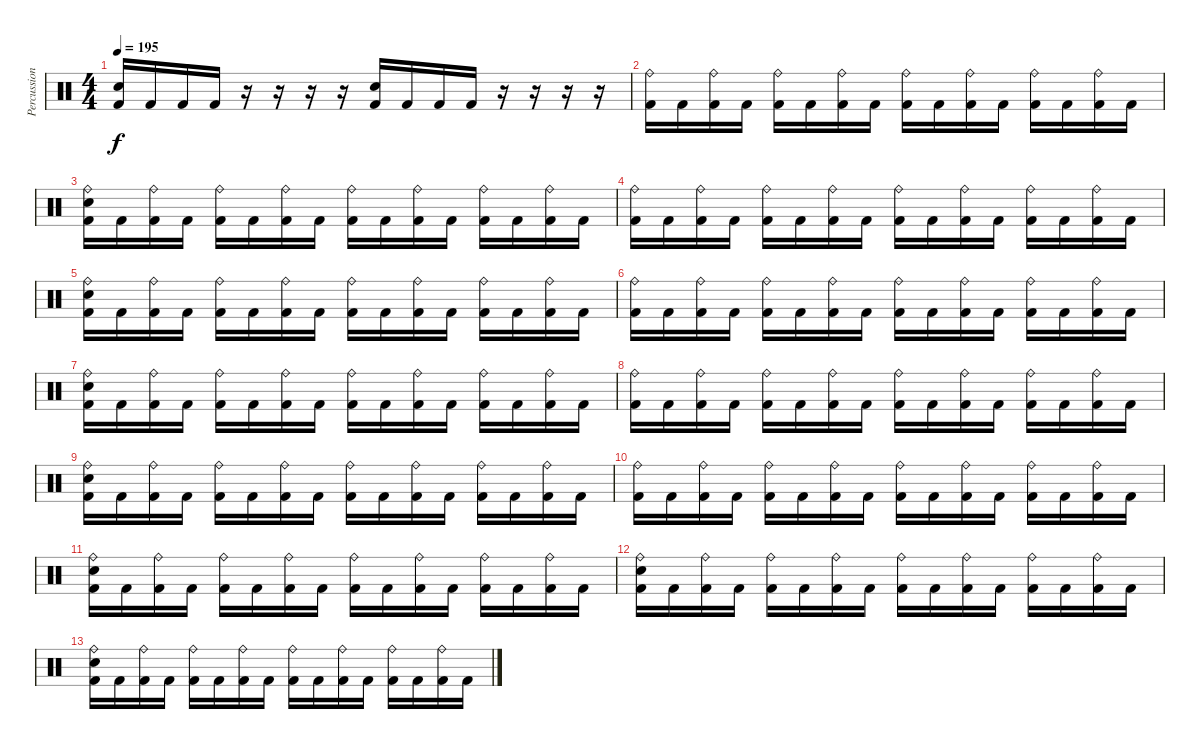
\track ("Percussion" "Percussion") {instrument percussion}
\staff {score}
\articulation defaults
\ts (4 4)
\tempo 195
\clef neutral
\ks c
("Snare (hit) 2" "Kick (hit) 2").16{dy f} "Kick (hit) 2".16 "Kick (hit) 2".16 "Kick (hit) 2".16 r.16 r.16 r.16 r.16 ("Snare (hit) 2" "Kick (hit) 2").16 "Kick (hit) 2".16 "Kick (hit) 2".16 "Kick (hit) 2".16 r.16 r.16 r.16 r.16 |
("Ride (bell)" "Kick (hit) 2").16 "Kick (hit) 2".16 ("Ride (bell)" "Kick (hit) 2").16 "Kick (hit) 2".16 ("Ride (bell)" "Kick (hit) 2").16 "Kick (hit) 2".16 ("Ride (bell)" "Kick (hit) 2").16 "Kick (hit) 2".16 ("Ride (bell)" "Kick (hit) 2").16 "Kick (hit) 2".16 ("Ride (bell)" "Kick (hit) 2").16 "Kick (hit) 2".16 ("Ride (bell)" "Kick (hit) 2").16 "Kick (hit) 2".16 ("Ride (bell)" "Kick (hit) 2").16 "Kick (hit) 2".16 |
("Ride (bell)" "Snare (hit) 2" "Kick (hit) 2").16 "Kick (hit) 2".16 ("Ride (bell)" "Kick (hit) 2").16 "Kick (hit) 2".16 ("Ride (bell)" "Kick (hit) 2").16 "Kick (hit) 2".16 ("Ride (bell)" "Kick (hit) 2").16 "Kick (hit) 2".16 ("Ride (bell)" "Kick (hit) 2").16 "Kick (hit) 2".16 ("Ride (bell)" "Kick (hit) 2").16 "Kick (hit) 2".16 ("Ride (bell)" "Kick (hit) 2").16 "Kick (hit) 2".16 ("Ride (bell)" "Kick (hit) 2").16 "Kick (hit) 2".16 |
("Ride (bell)" "Kick (hit) 2").16 "Kick (hit) 2".16 ("Ride (bell)" "Kick (hit) 2").16 "Kick (hit) 2".16 ("Ride (bell)" "Kick (hit) 2").16 "Kick (hit) 2".16 ("Ride (bell)" "Kick (hit) 2").16 "Kick (hit) 2".16 ("Ride (bell)" "Kick (hit) 2").16 "Kick (hit) 2".16 ("Ride (bell)" "Kick (hit) 2").16 "Kick (hit) 2".16 ("Ride (bell)" "Kick (hit) 2").16 "Kick (hit) 2".16 ("Ride (bell)" "Kick (hit) 2").16 "Kick (hit) 2".16 |
("Ride (bell)" "Snare (hit) 2" "Kick (hit) 2").16{volume 7} "Kick (hit) 2".16 ("Ride (bell)" "Kick (hit) 2").16 "Kick (hit) 2".16 ("Ride (bell)" "Kick (hit) 2").16 "Kick (hit) 2".16 ("Ride (bell)" "Kick (hit) 2").16 "Kick (hit) 2".16 ("Ride (bell)" "Kick (hit) 2").16 "Kick (hit) 2".16 ("Ride (bell)" "Kick (hit) 2").16 "Kick (hit) 2".16 ("Ride (bell)" "Kick (hit) 2").16 "Kick (hit) 2".16 ("Ride (bell)" "Kick (hit) 2").16 "Kick (hit) 2".16 |
("Ride (bell)" "Kick (hit) 2").16{volume 6} "Kick (hit) 2".16 ("Ride (bell)" "Kick (hit) 2").16 "Kick (hit) 2".16 ("Ride (bell)" "Kick (hit) 2").16 "Kick (hit) 2".16 ("Ride (bell)" "Kick (hit) 2").16 "Kick (hit) 2".16 ("Ride (bell)" "Kick (hit) 2").16 "Kick (hit) 2".16 ("Ride (bell)" "Kick (hit) 2").16 "Kick (hit) 2".16 ("Ride (bell)" "Kick (hit) 2").16 "Kick (hit) 2".16 ("Ride (bell)" "Kick (hit) 2").16 "Kick (hit) 2".16 |
("Ride (bell)" "Snare (hit) 2" "Kick (hit) 2").16{volume 5} "Kick (hit) 2".16 ("Ride (bell)" "Kick (hit) 2").16 "Kick (hit) 2".16 ("Ride (bell)" "Kick (hit) 2").16 "Kick (hit) 2".16 ("Ride (bell)" "Kick (hit) 2").16 "Kick (hit) 2".16 ("Ride (bell)" "Kick (hit) 2").16 "Kick (hit) 2".16 ("Ride (bell)" "Kick (hit) 2").16 "Kick (hit) 2".16 ("Ride (bell)" "Kick (hit) 2").16 "Kick (hit) 2".16 ("Ride (bell)" "Kick (hit) 2").16 "Kick (hit) 2".16 |
("Ride (bell)" "Kick (hit) 2").16 "Kick (hit) 2".16 ("Ride (bell)" "Kick (hit) 2").16 "Kick (hit) 2".16 ("Ride (bell)" "Kick (hit) 2").16 "Kick (hit) 2".16 ("Ride (bell)" "Kick (hit) 2").16 "Kick (hit) 2".16 ("Ride (bell)" "Kick (hit) 2").16 "Kick (hit) 2".16 ("Ride (bell)" "Kick (hit) 2").16 "Kick (hit) 2".16 ("Ride (bell)" "Kick (hit) 2").16 "Kick (hit) 2".16 ("Ride (bell)" "Kick (hit) 2").16 "Kick (hit) 2".16 |
("Ride (bell)" "Snare (hit) 2" "Kick (hit) 2").16{volume 4} "Kick (hit) 2".16 ("Ride (bell)" "Kick (hit) 2").16 "Kick (hit) 2".16 ("Ride (bell)" "Kick (hit) 2").16 "Kick (hit) 2".16 ("Ride (bell)" "Kick (hit) 2").16 "Kick (hit) 2".16 ("Ride (bell)" "Kick (hit) 2").16 "Kick (hit) 2".16 ("Ride (bell)" "Kick (hit) 2").16 "Kick (hit) 2".16 ("Ride (bell)" "Kick (hit) 2").16 "Kick (hit) 2".16 ("Ride (bell)" "Kick (hit) 2").16 "Kick (hit) 2".16 |
("Ride (bell)" "Kick (hit) 2").16 "Kick (hit) 2".16 ("Ride (bell)" "Kick (hit) 2").16 "Kick (hit) 2".16 ("Ride (bell)" "Kick (hit) 2").16 "Kick (hit) 2".16 ("Ride (bell)" "Kick (hit) 2").16 "Kick (hit) 2".16 ("Ride (bell)" "Kick (hit) 2").16 "Kick (hit) 2".16 ("Ride (bell)" "Kick (hit) 2").16 "Kick (hit) 2".16 ("Ride (bell)" "Kick (hit) 2").16 "Kick (hit) 2".16 ("Ride (bell)" "Kick (hit) 2").16 "Kick (hit) 2".16 |
("Ride (bell)" "Snare (hit) 2" "Kick (hit) 2").16{volume 3} "Kick (hit) 2".16 ("Ride (bell)" "Kick (hit) 2").16 "Kick (hit) 2".16 ("Ride (bell)" "Kick (hit) 2").16 "Kick (hit) 2".16 ("Ride (bell)" "Kick (hit) 2").16 "Kick (hit) 2".16 ("Ride (bell)" "Kick (hit) 2").16 "Kick (hit) 2".16 ("Ride (bell)" "Kick (hit) 2").16 "Kick (hit) 2".16 ("Ride (bell)" "Kick (hit) 2").16 "Kick (hit) 2".16 ("Ride (bell)" "Kick (hit) 2").16 "Kick (hit) 2".16 |
("Ride (bell)" "Snare (hit) 2" "Kick (hit) 2").16{volume 2} "Kick (hit) 2".16 ("Ride (bell)" "Kick (hit) 2").16 "Kick (hit) 2".16 ("Ride (bell)" "Kick (hit) 2").16 "Kick (hit) 2".16 ("Ride (bell)" "Kick (hit) 2").16 "Kick (hit) 2".16 ("Ride (bell)" "Kick (hit) 2").16 "Kick (hit) 2".16 ("Ride (bell)" "Kick (hit) 2").16 "Kick (hit) 2".16 ("Ride (bell)" "Kick (hit) 2").16 "Kick (hit) 2".16 ("Ride (bell)" "Kick (hit) 2").16 "Kick (hit) 2".16 |
("Ride (bell)" "Snare (hit) 2" "Kick (hit) 2").16{volume 1} "Kick (hit) 2".16 ("Ride (bell)" "Kick (hit) 2").16 "Kick (hit) 2".16 ("Ride (bell)" "Kick (hit) 2").16 "Kick (hit) 2".16 ("Ride (bell)" "Kick (hit) 2").16 "Kick (hit) 2".16 ("Ride (bell)" "Kick (hit) 2").16 "Kick (hit) 2".16 ("Ride (bell)" "Kick (hit) 2").16 "Kick (hit) 2".16 ("Ride (bell)" "Kick (hit) 2").16 "Kick (hit) 2".16 ("Ride (bell)" "Kick (hit) 2").16 "Kick (hit) 2".16
